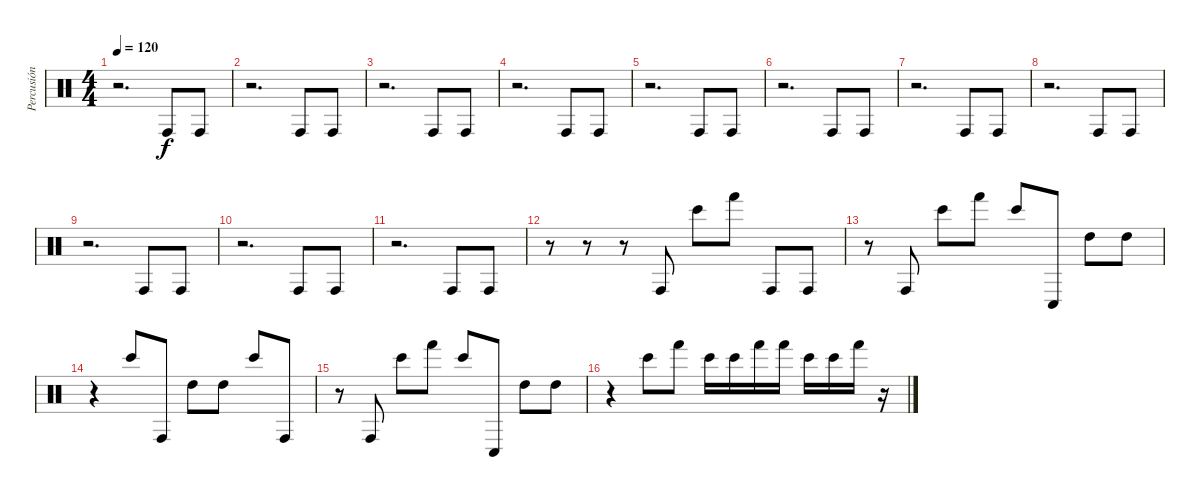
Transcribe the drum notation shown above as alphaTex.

\track ("Percusión" "Percusión") {instrument percussion}
\staff {score}
\articulation defaults
\ts (4 4)
\tempo 120
\clef neutral
\ks c
r.2{d dy f} "Conga high (hit)".8 "Conga high (hit)".8 |
r.2{d} "Conga high (hit)".8 "Conga high (hit)".8 |
r.2{d} "Conga high (hit)".8 "Conga high (hit)".8 |
r.2{d} "Conga high (hit)".8 "Conga high (hit)".8 |
r.2{d} "Conga high (hit)".8 "Conga high (hit)".8 |
r.2{d} "Conga high (hit)".8 "Conga high (hit)".8 |
r.2{d} "Conga high (hit)".8 "Conga high (hit)".8 |
r.2{d} "Conga high (hit)".8 "Conga high (hit)".8 |
r.2{d} "Conga high (hit)".8 "Conga high (hit)".8 |
r.2{d} "Conga high (hit)".8 "Conga high (hit)".8 |
r.2{d} "Conga high (hit)".8 "Conga high (hit)".8 |
r.8 r.8 r.8 "Conga high (hit)".8 "Bongo High (hit)".8 "Hand (hit)".8 "Conga high (hit)".8 "Conga high (hit)".8 |
r.8 "Conga high (hit)".8 "Bongo High (hit)".8 "Hand (hit)".8 "Bongo High (hit)".8 "Conga low (hit)".8 "High Tom (hit)".8 "High Tom (hit)".8 |
r.4 "Bongo High (hit)".8 "Conga high (hit)".8 "High Tom (hit)".8 "High Tom (hit)".8 "Bongo High (hit)".8 "Conga high (hit)".8 |
r.8 "Conga high (hit)".8 "Bongo High (hit)".8 "Hand (hit)".8 "Bongo High (hit)".8 "Conga low (hit)".8 "High Tom (hit)".8 "High Tom (hit)".8 |
r.4 "Bongo High (hit)".8 "Hand (hit)".8 "Bongo High (hit)".16 "Bongo High (hit)".16 "Hand (hit)".16 "Hand (hit)".16 "Bongo High (hit)".16 "Bongo High (hit)".16 "Hand (hit)".16 r.16
